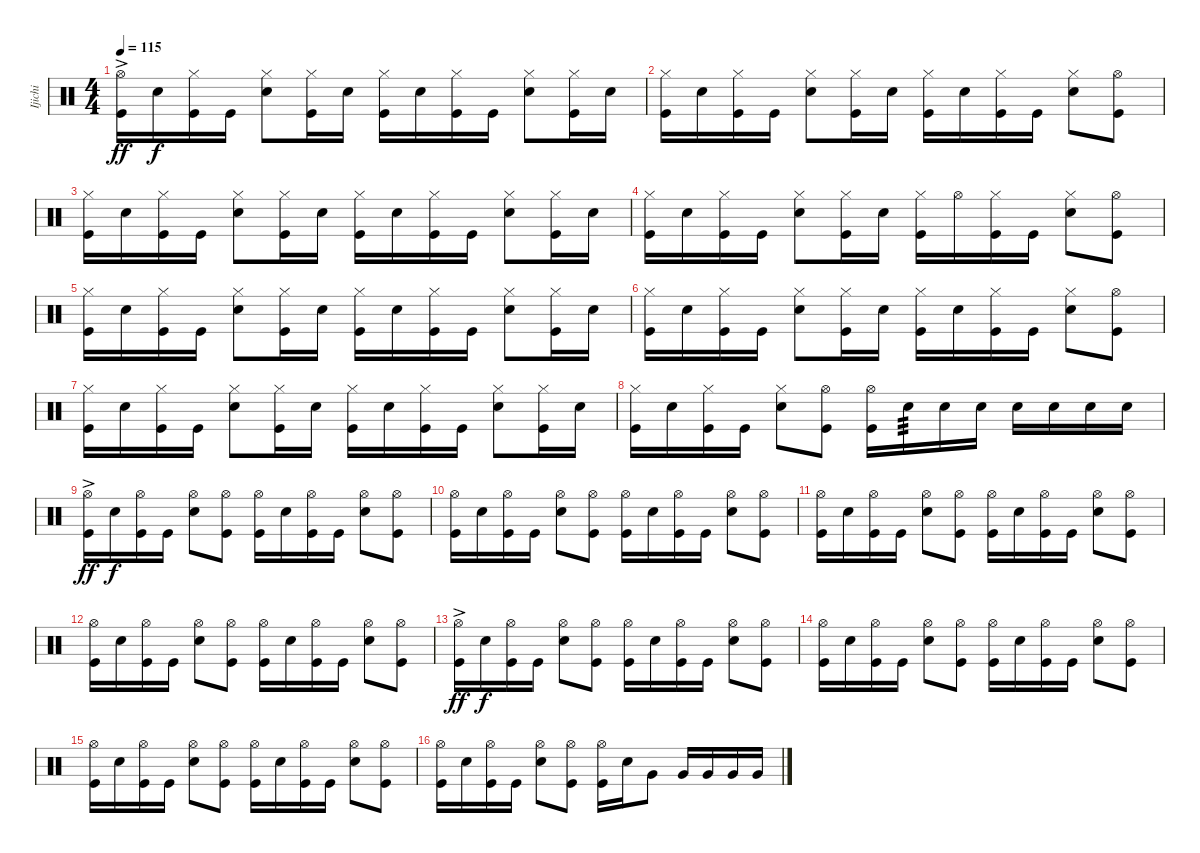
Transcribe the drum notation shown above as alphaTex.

\track ("Ijichi" "Ijichi") {instrument percussion}
\staff {score}
\articulation defaults
\ts (4 4)
\tempo 115
\clef neutral
\ks c
("Hi-Hat (open)"{ac} "Kick (hit)").16{dy ff} "Snare (hit) 2".16{dy f} ("Hi-Hat (closed)" "Kick (hit)").16 "Kick (hit)".16 ("Hi-Hat (closed)" "Snare (hit) 2").8 ("Hi-Hat (closed)" "Kick (hit)").16 "Snare (hit) 2".16 ("Hi-Hat (closed)" "Kick (hit)").16 "Snare (hit) 2".16 ("Hi-Hat (closed)" "Kick (hit)").16 "Kick (hit)".16 ("Hi-Hat (closed)" "Snare (hit) 2").8 ("Hi-Hat (closed)" "Kick (hit)").16 "Snare (hit) 2".16 |
("Hi-Hat (closed)" "Kick (hit)").16 "Snare (hit) 2".16 ("Hi-Hat (closed)" "Kick (hit)").16 "Kick (hit)".16 ("Hi-Hat (closed)" "Snare (hit) 2").8 ("Hi-Hat (closed)" "Kick (hit)").16 "Snare (hit) 2".16 ("Hi-Hat (closed)" "Kick (hit)").16 "Snare (hit) 2".16 ("Hi-Hat (closed)" "Kick (hit)").16 "Kick (hit)".16 ("Hi-Hat (closed)" "Snare (hit) 2").8 ("Hi-Hat (open)" "Kick (hit)").8 |
("Hi-Hat (closed)" "Kick (hit)").16 "Snare (hit) 2".16 ("Hi-Hat (closed)" "Kick (hit)").16 "Kick (hit)".16 ("Hi-Hat (closed)" "Snare (hit) 2").8 ("Hi-Hat (closed)" "Kick (hit)").16 "Snare (hit) 2".16 ("Hi-Hat (closed)" "Kick (hit)").16 "Snare (hit) 2".16 ("Hi-Hat (closed)" "Kick (hit)").16 "Kick (hit)".16 ("Hi-Hat (closed)" "Snare (hit) 2").8 ("Hi-Hat (closed)" "Kick (hit)").16 "Snare (hit) 2".16 |
("Hi-Hat (closed)" "Kick (hit)").16 "Snare (hit) 2".16 ("Hi-Hat (closed)" "Kick (hit)").16 "Kick (hit)".16 ("Hi-Hat (closed)" "Snare (hit) 2").8 ("Hi-Hat (closed)" "Kick (hit)").16 "Snare (hit) 2".16 ("Hi-Hat (closed)" "Kick (hit)").16 "Hi-Hat (open)".16 ("Hi-Hat (closed)" "Kick (hit)").16 "Kick (hit)".16 ("Hi-Hat (closed)" "Snare (hit) 2").8 ("Hi-Hat (open)" "Kick (hit)").8 |
("Hi-Hat (closed)" "Kick (hit)").16 "Snare (hit) 2".16 ("Hi-Hat (closed)" "Kick (hit)").16 "Kick (hit)".16 ("Hi-Hat (closed)" "Snare (hit) 2").8 ("Hi-Hat (closed)" "Kick (hit)").16 "Snare (hit) 2".16 ("Hi-Hat (closed)" "Kick (hit)").16 "Snare (hit) 2".16 ("Hi-Hat (closed)" "Kick (hit)").16 "Kick (hit)".16 ("Hi-Hat (closed)" "Snare (hit) 2").8 ("Hi-Hat (closed)" "Kick (hit)").16 "Snare (hit) 2".16 |
("Hi-Hat (closed)" "Kick (hit)").16 "Snare (hit) 2".16 ("Hi-Hat (closed)" "Kick (hit)").16 "Kick (hit)".16 ("Hi-Hat (closed)" "Snare (hit) 2").8 ("Hi-Hat (closed)" "Kick (hit)").16 "Snare (hit) 2".16 ("Hi-Hat (closed)" "Kick (hit)").16 "Snare (hit) 2".16 ("Hi-Hat (closed)" "Kick (hit)").16 "Kick (hit)".16 ("Hi-Hat (closed)" "Snare (hit) 2").8 ("Hi-Hat (open)" "Kick (hit)").8 |
("Hi-Hat (closed)" "Kick (hit)").16 "Snare (hit) 2".16 ("Hi-Hat (closed)" "Kick (hit)").16 "Kick (hit)".16 ("Hi-Hat (closed)" "Snare (hit) 2").8 ("Hi-Hat (closed)" "Kick (hit)").16 "Snare (hit) 2".16 ("Hi-Hat (closed)" "Kick (hit)").16 "Snare (hit) 2".16 ("Hi-Hat (closed)" "Kick (hit)").16 "Kick (hit)".16 ("Hi-Hat (closed)" "Snare (hit) 2").8 ("Hi-Hat (closed)" "Kick (hit)").16 "Snare (hit) 2".16 |
("Hi-Hat (closed)" "Kick (hit)").16 "Snare (hit) 2".16 ("Hi-Hat (closed)" "Kick (hit)").16 "Kick (hit)".16 ("Hi-Hat (closed)" "Snare (hit) 2").8 ("Hi-Hat (open)" "Kick (hit)").8 ("Hi-Hat (open)" "Kick (hit)").16 "Snare (hit) 2".16{tp 3} "Snare (hit) 2".16 "Snare (hit) 2".16 "Snare (hit) 2".16 "Snare (hit) 2".16 "Snare (hit) 2".16 "Snare (hit) 2".16 |
("Hi-Hat (open)"{ac} "Kick (hit)").16{dy ff} "Snare (hit) 2".16{dy f} ("Hi-Hat (open)" "Kick (hit)").16 "Kick (hit)".16 ("Hi-Hat (open)" "Snare (hit) 2").8 ("Hi-Hat (open)" "Kick (hit)").8 ("Hi-Hat (open)" "Kick (hit)").16 "Snare (hit) 2".16 ("Hi-Hat (open)" "Kick (hit)").16 "Kick (hit)".16 ("Hi-Hat (open)" "Snare (hit) 2").8 ("Hi-Hat (open)" "Kick (hit)").8 |
("Hi-Hat (open)" "Kick (hit)").16 "Snare (hit) 2".16 ("Hi-Hat (open)" "Kick (hit)").16 "Kick (hit)".16 ("Hi-Hat (open)" "Snare (hit) 2").8 ("Hi-Hat (open)" "Kick (hit)").8 ("Hi-Hat (open)" "Kick (hit)").16 "Snare (hit) 2".16 ("Hi-Hat (open)" "Kick (hit)").16 "Kick (hit)".16 ("Hi-Hat (open)" "Snare (hit) 2").8 ("Hi-Hat (open)" "Kick (hit)").8 |
("Hi-Hat (open)" "Kick (hit)").16 "Snare (hit) 2".16 ("Hi-Hat (open)" "Kick (hit)").16 "Kick (hit)".16 ("Hi-Hat (open)" "Snare (hit) 2").8 ("Hi-Hat (open)" "Kick (hit)").8 ("Hi-Hat (open)" "Kick (hit)").16 "Snare (hit) 2".16 ("Hi-Hat (open)" "Kick (hit)").16 "Kick (hit)".16 ("Hi-Hat (open)" "Snare (hit) 2").8 ("Hi-Hat (open)" "Kick (hit)").8 |
("Hi-Hat (open)" "Kick (hit)").16 "Snare (hit) 2".16 ("Hi-Hat (open)" "Kick (hit)").16 "Kick (hit)".16 ("Hi-Hat (open)" "Snare (hit) 2").8 ("Hi-Hat (open)" "Kick (hit)").8 ("Hi-Hat (open)" "Kick (hit)").16 "Snare (hit) 2".16 ("Hi-Hat (open)" "Kick (hit)").16 "Kick (hit)".16 ("Hi-Hat (open)" "Snare (hit) 2").8 ("Hi-Hat (open)" "Kick (hit)").8 |
("Hi-Hat (open)"{ac} "Kick (hit)").16{dy ff} "Snare (hit) 2".16{dy f} ("Hi-Hat (open)" "Kick (hit)").16 "Kick (hit)".16 ("Hi-Hat (open)" "Snare (hit) 2").8 ("Hi-Hat (open)" "Kick (hit)").8 ("Hi-Hat (open)" "Kick (hit)").16 "Snare (hit) 2".16 ("Hi-Hat (open)" "Kick (hit)").16 "Kick (hit)".16 ("Hi-Hat (open)" "Snare (hit) 2").8 ("Hi-Hat (open)" "Kick (hit)").8 |
("Hi-Hat (open)" "Kick (hit)").16 "Snare (hit) 2".16 ("Hi-Hat (open)" "Kick (hit)").16 "Kick (hit)".16 ("Hi-Hat (open)" "Snare (hit) 2").8 ("Hi-Hat (open)" "Kick (hit)").8 ("Hi-Hat (open)" "Kick (hit)").16 "Snare (hit) 2".16 ("Hi-Hat (open)" "Kick (hit)").16 "Kick (hit)".16 ("Hi-Hat (open)" "Snare (hit) 2").8 ("Hi-Hat (open)" "Kick (hit)").8 |
("Hi-Hat (open)" "Kick (hit)").16 "Snare (hit) 2".16 ("Hi-Hat (open)" "Kick (hit)").16 "Kick (hit)".16 ("Hi-Hat (open)" "Snare (hit) 2").8 ("Hi-Hat (open)" "Kick (hit)").8 ("Hi-Hat (open)" "Kick (hit)").16 "Snare (hit) 2".16 ("Hi-Hat (open)" "Kick (hit)").16 "Kick (hit)".16 ("Hi-Hat (open)" "Snare (hit) 2").8 ("Hi-Hat (open)" "Kick (hit)").8 |
("Hi-Hat (open)" "Kick (hit)").16 "Snare (hit) 2".16 ("Hi-Hat (open)" "Kick (hit)").16 "Kick (hit)".16 ("Hi-Hat (open)" "Snare (hit) 2").8 ("Hi-Hat (open)" "Kick (hit)").8 ("Hi-Hat (open)" "Kick (hit)").16 "Snare (hit) 2".16 "Very Low Tom (hit)".8 "Very Low Tom (hit)".16 "Very Low Tom (hit)".16 "Very Low Tom (hit)".16 "Very Low Tom (hit)".16
